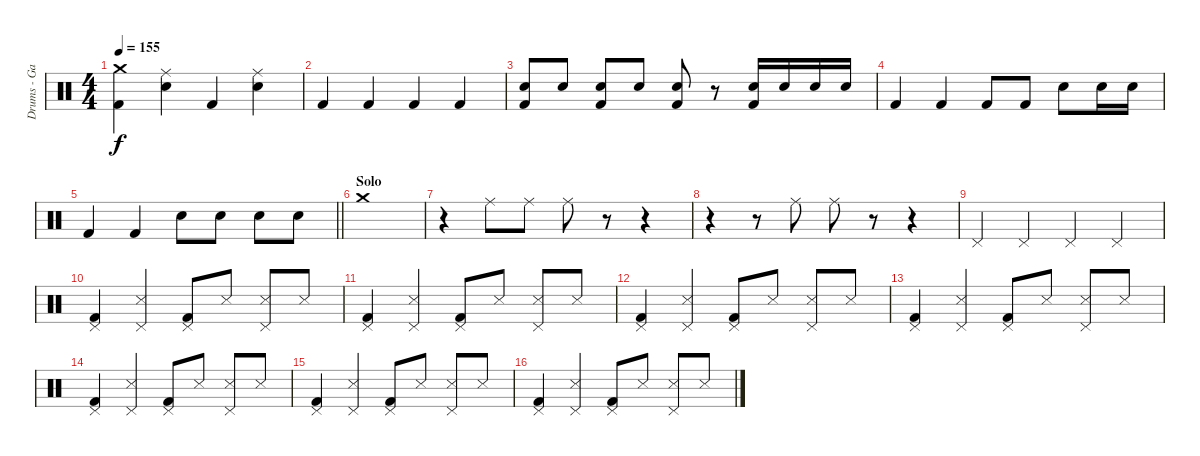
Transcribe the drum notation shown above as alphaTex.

\track ("Drums - Gary" "Drums - Ga") {instrument percussion}
\staff {score}
\articulation defaults
\ts (4 4)
\tempo 155
\clef neutral
\ks c
("Crash medium (hit)" "Kick (hit) 2").4{dy f} ("Snare (hit) 2" "Ride (middle)").4 "Kick (hit) 2".4 ("Snare (hit) 2" "Ride (middle)").4 |
"Kick (hit) 2".4 "Kick (hit) 2".4 "Kick (hit) 2".4 "Kick (hit) 2".4 |
("Snare (hit) 2" "Kick (hit) 2").8 "Snare (hit) 2".8 ("Snare (hit) 2" "Kick (hit) 2").8 "Snare (hit) 2".8 ("Snare (hit) 2" "Kick (hit) 2").8 r.8 ("Snare (hit) 2" "Kick (hit) 2").16 "Snare (hit) 2".16 "Snare (hit) 2".16 "Snare (hit) 2".16 |
"Kick (hit) 2".4 "Kick (hit) 2".4 "Kick (hit) 2".8 "Kick (hit) 2".8 "Snare (hit) 2".8 "Snare (hit) 2".16 "Snare (hit) 2".16 |
\barLineRight lightlight "Kick (hit) 2".4 "Kick (hit) 2".4 "Snare (hit) 2".8 "Snare (hit) 2".8 "Snare (hit) 2".8 "Snare (hit) 2".8
|
\section ("" "Solo")
"Crash medium (hit)".1 |
r.4 "Ride (middle)".8 "Ride (middle)".8 "Ride (middle)".8 r.8 r.4 |
r.4 r.8 "Ride (middle)".8 "Ride (middle)".8 r.8 r.4 |
"Pedal Hi-Hat (hit)".4 "Pedal Hi-Hat (hit)".4 "Pedal Hi-Hat (hit)".4 "Pedal Hi-Hat (hit)".4 |
("Pedal Hi-Hat (hit)" "Kick (hit) 2").4 ("Snare (side stick) 3" "Pedal Hi-Hat (hit)").4 ("Pedal Hi-Hat (hit)" "Kick (hit) 2").8 "Snare (side stick) 3".8 ("Snare (side stick) 3" "Pedal Hi-Hat (hit)").8 "Snare (side stick) 3".8 |
("Pedal Hi-Hat (hit)" "Kick (hit) 2").4 ("Snare (side stick) 3" "Pedal Hi-Hat (hit)").4 ("Pedal Hi-Hat (hit)" "Kick (hit) 2").8 "Snare (side stick) 3".8 ("Snare (side stick) 3" "Pedal Hi-Hat (hit)").8 "Snare (side stick) 3".8 |
("Pedal Hi-Hat (hit)" "Kick (hit) 2").4 ("Snare (side stick) 3" "Pedal Hi-Hat (hit)").4 ("Pedal Hi-Hat (hit)" "Kick (hit) 2").8 "Snare (side stick) 3".8 ("Snare (side stick) 3" "Pedal Hi-Hat (hit)").8 "Snare (side stick) 3".8 |
("Pedal Hi-Hat (hit)" "Kick (hit) 2").4 ("Snare (side stick) 3" "Pedal Hi-Hat (hit)").4 ("Pedal Hi-Hat (hit)" "Kick (hit) 2").8 "Snare (side stick) 3".8 ("Snare (side stick) 3" "Pedal Hi-Hat (hit)").8 "Snare (side stick) 3".8 |
("Pedal Hi-Hat (hit)" "Kick (hit) 2").4 ("Snare (side stick) 3" "Pedal Hi-Hat (hit)").4 ("Pedal Hi-Hat (hit)" "Kick (hit) 2").8 "Snare (side stick) 3".8 ("Snare (side stick) 3" "Pedal Hi-Hat (hit)").8 "Snare (side stick) 3".8 |
("Pedal Hi-Hat (hit)" "Kick (hit) 2").4 ("Snare (side stick) 3" "Pedal Hi-Hat (hit)").4 ("Pedal Hi-Hat (hit)" "Kick (hit) 2").8 "Snare (side stick) 3".8 ("Snare (side stick) 3" "Pedal Hi-Hat (hit)").8 "Snare (side stick) 3".8 |
("Pedal Hi-Hat (hit)" "Kick (hit) 2").4 ("Snare (side stick) 3" "Pedal Hi-Hat (hit)").4 ("Pedal Hi-Hat (hit)" "Kick (hit) 2").8 "Snare (side stick) 3".8 ("Snare (side stick) 3" "Pedal Hi-Hat (hit)").8 "Snare (side stick) 3".8
